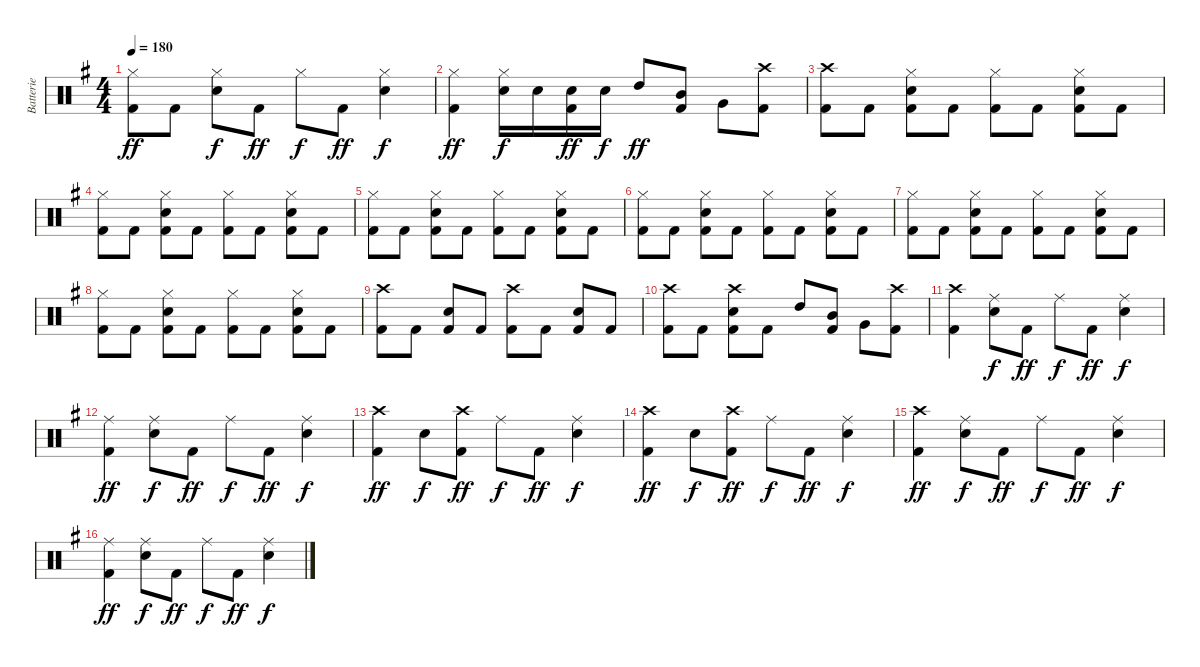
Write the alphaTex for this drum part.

\track ("Batterie" "Batterie") {instrument percussion}
\staff {score}
\articulation defaults
\ts (4 4)
\tempo 180
\clef neutral
\ks g
("Hi-Hat (closed)" "Kick (hit) 2").8{dy ff} "Kick (hit) 2".8 ("Hi-Hat (closed)" "Snare (hit) 2").8{dy f} "Kick (hit) 2".8{dy ff} "Hi-Hat (closed)".8{dy f} "Kick (hit) 2".8{dy ff} ("Hi-Hat (closed)" "Snare (hit) 2").4{dy f} |
("Hi-Hat (closed)" "Kick (hit) 2").4{dy ff} ("Hi-Hat (closed)" "Snare (hit) 2").16{dy f} "Snare (hit) 2".16 ("Snare (hit) 2" "Kick (hit) 2").16{dy ff} "Snare (hit) 2".16{dy f} "High Tom (hit)".8{dy ff} ("Mid Tom (hit)" "Kick (hit) 2").8 "Very Low Tom (hit)".8 ("Crash high (hit)" "Kick (hit) 2").8 |
("Crash high (hit)" "Kick (hit) 2").8 "Kick (hit) 2".8 ("Hi-Hat (closed)" "Snare (hit) 2" "Kick (hit) 2").8 "Kick (hit) 2".8 ("Hi-Hat (closed)" "Kick (hit) 2").8 "Kick (hit) 2".8 ("Hi-Hat (closed)" "Snare (hit) 2" "Kick (hit) 2").8 "Kick (hit) 2".8 |
("Hi-Hat (closed)" "Kick (hit) 2").8 "Kick (hit) 2".8 ("Hi-Hat (closed)" "Snare (hit) 2" "Kick (hit) 2").8 "Kick (hit) 2".8 ("Hi-Hat (closed)" "Kick (hit) 2").8 "Kick (hit) 2".8 ("Hi-Hat (closed)" "Snare (hit) 2" "Kick (hit) 2").8 "Kick (hit) 2".8 |
("Hi-Hat (closed)" "Kick (hit) 2").8 "Kick (hit) 2".8 ("Hi-Hat (closed)" "Snare (hit) 2" "Kick (hit) 2").8 "Kick (hit) 2".8 ("Hi-Hat (closed)" "Kick (hit) 2").8 "Kick (hit) 2".8 ("Hi-Hat (closed)" "Snare (hit) 2" "Kick (hit) 2").8 "Kick (hit) 2".8 |
("Hi-Hat (closed)" "Kick (hit) 2").8 "Kick (hit) 2".8 ("Hi-Hat (closed)" "Snare (hit) 2" "Kick (hit) 2").8 "Kick (hit) 2".8 ("Hi-Hat (closed)" "Kick (hit) 2").8 "Kick (hit) 2".8 ("Hi-Hat (closed)" "Snare (hit) 2" "Kick (hit) 2").8 "Kick (hit) 2".8 |
("Hi-Hat (closed)" "Kick (hit) 2").8 "Kick (hit) 2".8 ("Hi-Hat (closed)" "Snare (hit) 2" "Kick (hit) 2").8 "Kick (hit) 2".8 ("Hi-Hat (closed)" "Kick (hit) 2").8 "Kick (hit) 2".8 ("Hi-Hat (closed)" "Snare (hit) 2" "Kick (hit) 2").8 "Kick (hit) 2".8 |
("Hi-Hat (closed)" "Kick (hit) 2").8 "Kick (hit) 2".8 ("Hi-Hat (closed)" "Snare (hit) 2" "Kick (hit) 2").8 "Kick (hit) 2".8 ("Hi-Hat (closed)" "Kick (hit) 2").8 "Kick (hit) 2".8 ("Hi-Hat (closed)" "Snare (hit) 2" "Kick (hit) 2").8 "Kick (hit) 2".8 |
("Crash high (hit)" "Kick (hit) 2").8 "Kick (hit) 2".8 ("Snare (hit) 2" "Kick (hit) 2").8 "Kick (hit) 2".8 ("Crash high (hit)" "Kick (hit) 2").8 "Kick (hit) 2".8 ("Snare (hit) 2" "Kick (hit) 2").8 "Kick (hit) 2".8 |
("Crash high (hit)" "Kick (hit) 2").8 "Kick (hit) 2".8 ("Crash high (hit)" "Snare (hit) 2" "Kick (hit) 2").8 "Kick (hit) 2".8 "High Tom (hit)".8 ("Mid Tom (hit)" "Kick (hit) 2").8 "Very Low Tom (hit)".8 ("Crash high (hit)" "Kick (hit) 2").8 |
("Crash high (hit)" "Kick (hit) 2").4 ("Ride (middle)" "Snare (hit) 2").8{dy f} "Kick (hit) 2".8{dy ff} "Ride (middle)".8{dy f} "Kick (hit) 2".8{dy ff} ("Ride (middle)" "Snare (hit) 2").4{dy f} |
("Ride (middle)" "Kick (hit) 2").4{dy ff} ("Ride (middle)" "Snare (hit) 2").8{dy f} "Kick (hit) 2".8{dy ff} "Ride (middle)".8{dy f} "Kick (hit) 2".8{dy ff} ("Ride (middle)" "Snare (hit) 2").4{dy f} |
("Crash high (hit)" "Kick (hit) 2").4{dy ff} "Snare (hit) 2".8{dy f} ("Crash high (hit)" "Kick (hit) 2").8{dy ff} "Ride (middle)".8{dy f} "Kick (hit) 2".8{dy ff} ("Ride (middle)" "Snare (hit) 2").4{dy f} |
("Crash high (hit)" "Kick (hit) 2").4{dy ff} "Snare (hit) 2".8{dy f} ("Crash high (hit)" "Kick (hit) 2").8{dy ff} "Ride (middle)".8{dy f} "Kick (hit) 2".8{dy ff} ("Ride (middle)" "Snare (hit) 2").4{dy f} |
("Crash high (hit)" "Kick (hit) 2").4{dy ff} ("Ride (middle)" "Snare (hit) 2").8{dy f} "Kick (hit) 2".8{dy ff} "Ride (middle)".8{dy f} "Kick (hit) 2".8{dy ff} ("Ride (middle)" "Snare (hit) 2").4{dy f} |
("Ride (middle)" "Kick (hit) 2").4{dy ff} ("Ride (middle)" "Snare (hit) 2").8{dy f} "Kick (hit) 2".8{dy ff} "Ride (middle)".8{dy f} "Kick (hit) 2".8{dy ff} ("Ride (middle)" "Snare (hit) 2").4{dy f}
